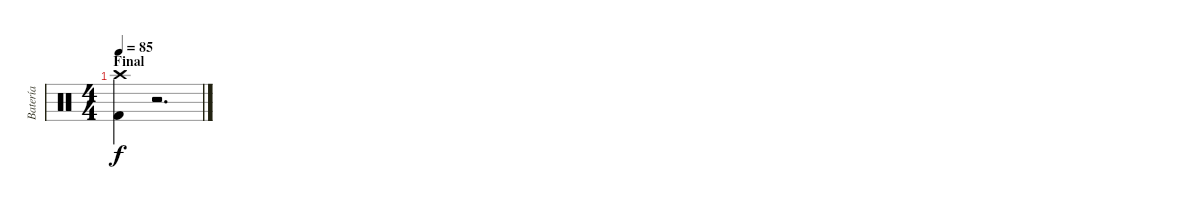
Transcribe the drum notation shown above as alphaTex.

\track ("Batería" "Batería") {instrument percussion}
\staff {score}
\articulation defaults
\ts (4 4)
\section ("" "Final")
\tempo 85
\clef neutral
\ks c
("Crash high (hit)" "Kick (hit) 2").4{dy f} r.2{d}
